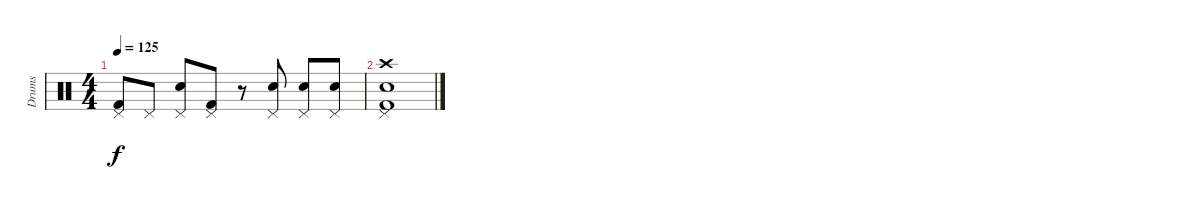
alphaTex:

\track ("Drums" "Drums") {instrument percussion}
\staff {score}
\articulation defaults
\ts (4 4)
\tempo 125
\clef neutral
\ks c
("Kick (hit) 2" "Pedal Hi-Hat (hit)").8{dy f} "Pedal Hi-Hat (hit)".8 ("Pedal Hi-Hat (hit)" "Snare (hit) 2").8 ("Pedal Hi-Hat (hit)" "Kick (hit) 2").8 r.8 ("Snare (hit) 2" "Pedal Hi-Hat (hit)").8 ("Snare (hit) 2" "Pedal Hi-Hat (hit)").8 ("Snare (hit) 2" "Pedal Hi-Hat (hit)").8 |
("Crash high (hit)" "Snare (hit) 2" "Kick (hit) 2" "Pedal Hi-Hat (hit)").1
